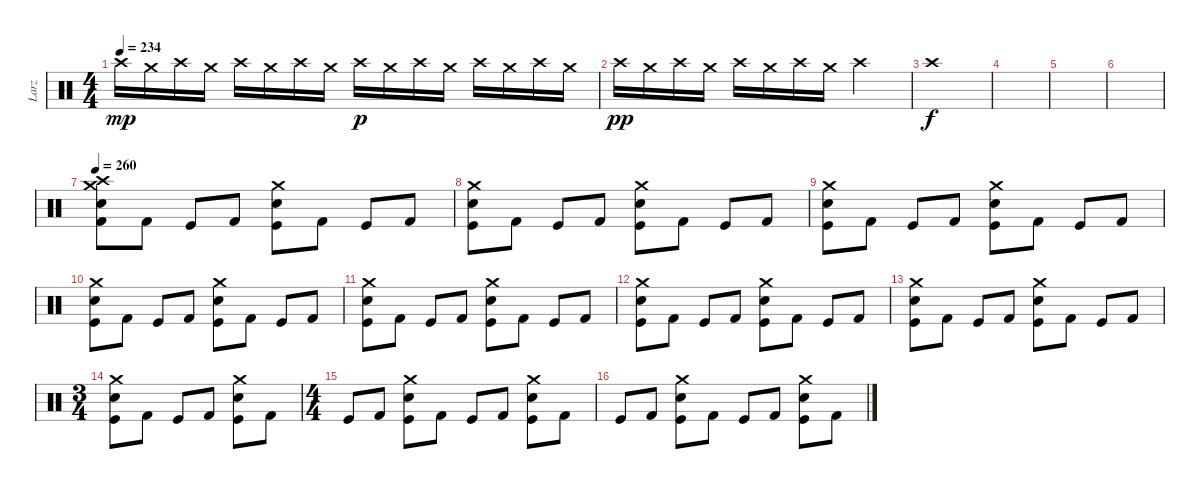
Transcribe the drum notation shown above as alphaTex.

\track ("Larz" "Larz") {instrument percussion}
\staff {score}
\articulation defaults
\ts (4 4)
\tempo 234
\clef neutral
\ks c "Crash high (hit)".16{dy mp} "Crash medium (hit)".16 "Crash high (hit)".16 "Crash medium (hit)".16 "Crash high (hit)".16 "Crash medium (hit)".16 "Crash high (hit)".16 "Crash medium (hit)".16 "Crash high (hit)".16{dy p} "Crash medium (hit)".16 "Crash high (hit)".16 "Crash medium (hit)".16 "Crash high (hit)".16 "Crash medium (hit)".16 "Crash high (hit)".16 "Crash medium (hit)".16
|
"Crash high (hit)".16{dy pp} "Crash medium (hit)".16 "Crash high (hit)".16 "Crash medium (hit)".16 "Crash high (hit)".16 "Crash medium (hit)".16 "Crash high (hit)".16 "Crash medium (hit)".16 "Crash high (hit)".2 |
"Crash high (hit)".1{dy f} |
|
|
|
\tempo 260
("Crash high (hit)" "Kick (hit) 2" "Electric Snare (hit)" "Crash medium (hit)").8 "Kick (hit) 2".8 "Kick (hit)".8 "Kick (hit) 2".8 ("Crash medium (hit)" "Kick (hit)" "Electric Snare (hit)").8 "Kick (hit) 2".8 "Kick (hit)".8 "Kick (hit) 2".8 |
("Crash medium (hit)" "Kick (hit)" "Electric Snare (hit)").8 "Kick (hit) 2".8 "Kick (hit)".8 "Kick (hit) 2".8 ("Crash medium (hit)" "Kick (hit)" "Electric Snare (hit)").8 "Kick (hit) 2".8 "Kick (hit)".8 "Kick (hit) 2".8 |
("Crash medium (hit)" "Kick (hit)" "Electric Snare (hit)").8 "Kick (hit) 2".8 "Kick (hit)".8 "Kick (hit) 2".8 ("Crash medium (hit)" "Kick (hit)" "Electric Snare (hit)").8 "Kick (hit) 2".8 "Kick (hit)".8 "Kick (hit) 2".8 |
("Crash medium (hit)" "Kick (hit)" "Electric Snare (hit)").8 "Kick (hit) 2".8 "Kick (hit)".8 "Kick (hit) 2".8 ("Crash medium (hit)" "Kick (hit)" "Electric Snare (hit)").8 "Kick (hit) 2".8 "Kick (hit)".8 "Kick (hit) 2".8 |
("Crash medium (hit)" "Kick (hit)" "Electric Snare (hit)").8 "Kick (hit) 2".8 "Kick (hit)".8 "Kick (hit) 2".8 ("Crash medium (hit)" "Kick (hit)" "Electric Snare (hit)").8 "Kick (hit) 2".8 "Kick (hit)".8 "Kick (hit) 2".8 |
("Crash medium (hit)" "Kick (hit)" "Electric Snare (hit)").8 "Kick (hit) 2".8 "Kick (hit)".8 "Kick (hit) 2".8 ("Crash medium (hit)" "Kick (hit)" "Electric Snare (hit)").8 "Kick (hit) 2".8 "Kick (hit)".8 "Kick (hit) 2".8 |
("Crash medium (hit)" "Kick (hit)" "Electric Snare (hit)").8 "Kick (hit) 2".8 "Kick (hit)".8 "Kick (hit) 2".8 ("Crash medium (hit)" "Kick (hit)" "Electric Snare (hit)").8 "Kick (hit) 2".8 "Kick (hit)".8 "Kick (hit) 2".8 |
\ts (3 4)
("Crash medium (hit)" "Kick (hit)" "Electric Snare (hit)").8 "Kick (hit) 2".8 "Kick (hit)".8 "Kick (hit) 2".8 ("Crash medium (hit)" "Kick (hit)" "Electric Snare (hit)").8 "Kick (hit) 2".8 |
\ts (4 4)
"Kick (hit)".8 "Kick (hit) 2".8 ("Crash medium (hit)" "Kick (hit)" "Electric Snare (hit)").8 "Kick (hit) 2".8 "Kick (hit)".8 "Kick (hit) 2".8 ("Crash medium (hit)" "Kick (hit)" "Electric Snare (hit)").8 "Kick (hit) 2".8 |
"Kick (hit)".8 "Kick (hit) 2".8 ("Crash medium (hit)" "Kick (hit)" "Electric Snare (hit)").8 "Kick (hit) 2".8 "Kick (hit)".8 "Kick (hit) 2".8 ("Crash medium (hit)" "Kick (hit)" "Electric Snare (hit)").8 "Kick (hit) 2".8
